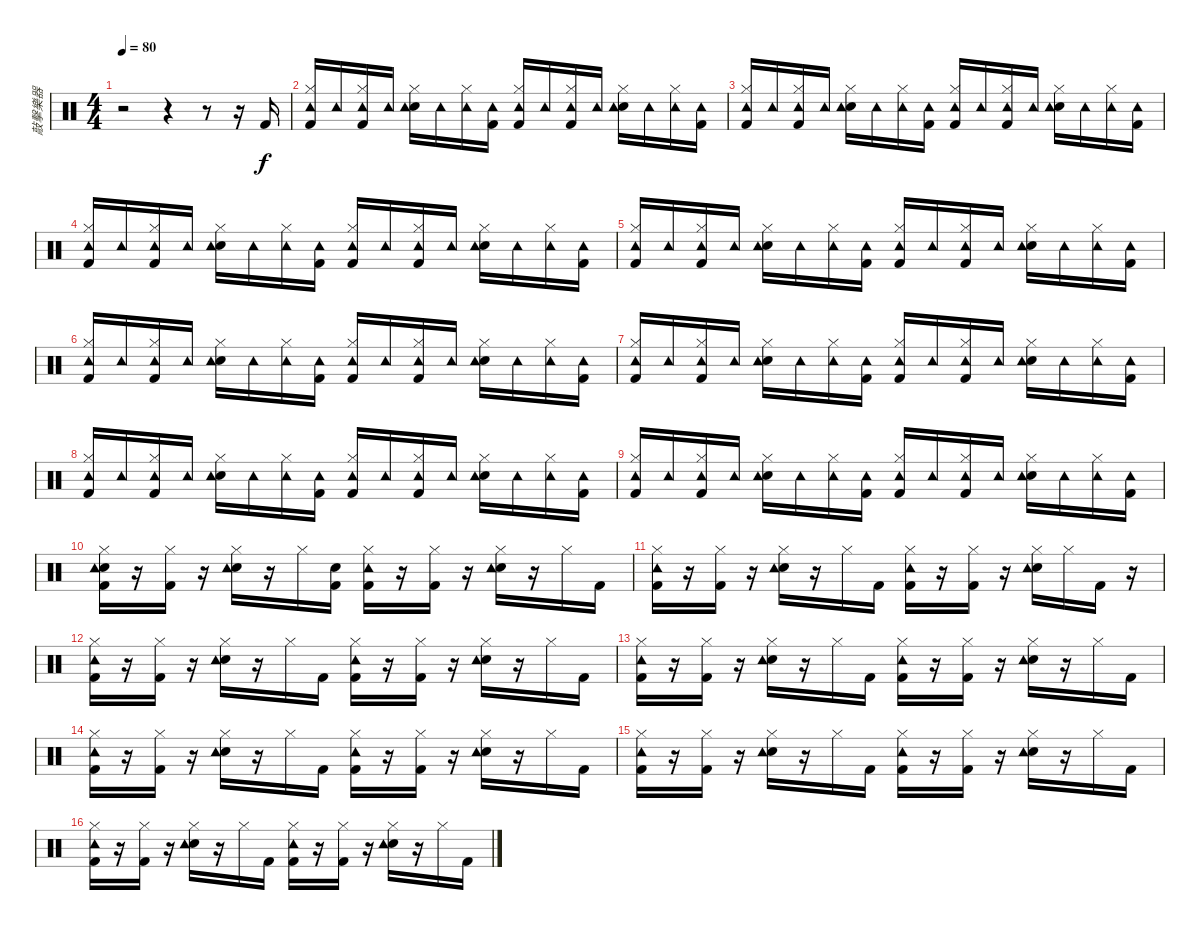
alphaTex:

\track ("敲擊樂器" "敲擊樂器") {instrument percussion}
\staff {score}
\articulation defaults
\ts (4 4)
\tempo 80
\clef neutral
\ks c
r.2{dy f} r.4 r.8 r.16 "Kick (hit) 2".16 |
("Kick (hit) 2" "Hi-Hat (closed)" "Tambourine (hit)").16 "Tambourine (hit)".16 ("Kick (hit) 2" "Hi-Hat (closed)" "Tambourine (hit)").16 "Tambourine (hit)".16 ("Snare (hit) 2" "Hi-Hat (closed)" "Tambourine (hit)").16 "Tambourine (hit)".16 ("Hi-Hat (closed)" "Tambourine (hit)").16 ("Kick (hit) 2" "Tambourine (hit)").16 ("Kick (hit) 2" "Hi-Hat (closed)" "Tambourine (hit)").16 "Tambourine (hit)".16 ("Kick (hit) 2" "Hi-Hat (closed)" "Tambourine (hit)").16 "Tambourine (hit)".16 ("Snare (hit) 2" "Hi-Hat (closed)" "Tambourine (hit)").16 "Tambourine (hit)".16 ("Hi-Hat (closed)" "Tambourine (hit)").16 ("Kick (hit) 2" "Tambourine (hit)").16 |
("Kick (hit) 2" "Hi-Hat (closed)" "Tambourine (hit)").16 "Tambourine (hit)".16 ("Kick (hit) 2" "Hi-Hat (closed)" "Tambourine (hit)").16 "Tambourine (hit)".16 ("Snare (hit) 2" "Hi-Hat (closed)" "Tambourine (hit)").16 "Tambourine (hit)".16 ("Hi-Hat (closed)" "Tambourine (hit)").16 ("Kick (hit) 2" "Tambourine (hit)").16 ("Kick (hit) 2" "Hi-Hat (closed)" "Tambourine (hit)").16 "Tambourine (hit)".16 ("Kick (hit) 2" "Hi-Hat (closed)" "Tambourine (hit)").16 "Tambourine (hit)".16 ("Snare (hit) 2" "Hi-Hat (closed)" "Tambourine (hit)").16 "Tambourine (hit)".16 ("Hi-Hat (closed)" "Tambourine (hit)").16 ("Kick (hit) 2" "Tambourine (hit)").16 |
("Kick (hit) 2" "Hi-Hat (closed)" "Tambourine (hit)").16 "Tambourine (hit)".16 ("Kick (hit) 2" "Hi-Hat (closed)" "Tambourine (hit)").16 "Tambourine (hit)".16 ("Snare (hit) 2" "Hi-Hat (closed)" "Tambourine (hit)").16 "Tambourine (hit)".16 ("Hi-Hat (closed)" "Tambourine (hit)").16 ("Kick (hit) 2" "Tambourine (hit)").16 ("Kick (hit) 2" "Hi-Hat (closed)" "Tambourine (hit)").16 "Tambourine (hit)".16 ("Kick (hit) 2" "Hi-Hat (closed)" "Tambourine (hit)").16 "Tambourine (hit)".16 ("Snare (hit) 2" "Hi-Hat (closed)" "Tambourine (hit)").16 "Tambourine (hit)".16 ("Hi-Hat (closed)" "Tambourine (hit)").16 ("Kick (hit) 2" "Tambourine (hit)").16 |
("Kick (hit) 2" "Hi-Hat (closed)" "Tambourine (hit)").16 "Tambourine (hit)".16 ("Kick (hit) 2" "Hi-Hat (closed)" "Tambourine (hit)").16 "Tambourine (hit)".16 ("Snare (hit) 2" "Hi-Hat (closed)" "Tambourine (hit)").16 "Tambourine (hit)".16 ("Hi-Hat (closed)" "Tambourine (hit)").16 ("Kick (hit) 2" "Tambourine (hit)").16 ("Kick (hit) 2" "Hi-Hat (closed)" "Tambourine (hit)").16 "Tambourine (hit)".16 ("Kick (hit) 2" "Hi-Hat (closed)" "Tambourine (hit)").16 "Tambourine (hit)".16 ("Snare (hit) 2" "Hi-Hat (closed)" "Tambourine (hit)").16 "Tambourine (hit)".16 ("Hi-Hat (closed)" "Tambourine (hit)").16 ("Kick (hit) 2" "Tambourine (hit)").16 |
("Kick (hit) 2" "Hi-Hat (closed)" "Tambourine (hit)").16 "Tambourine (hit)".16 ("Kick (hit) 2" "Hi-Hat (closed)" "Tambourine (hit)").16 "Tambourine (hit)".16 ("Snare (hit) 2" "Hi-Hat (closed)" "Tambourine (hit)").16 "Tambourine (hit)".16 ("Hi-Hat (closed)" "Tambourine (hit)").16 ("Kick (hit) 2" "Tambourine (hit)").16 ("Kick (hit) 2" "Hi-Hat (closed)" "Tambourine (hit)").16 "Tambourine (hit)".16 ("Kick (hit) 2" "Hi-Hat (closed)" "Tambourine (hit)").16 "Tambourine (hit)".16 ("Snare (hit) 2" "Hi-Hat (closed)" "Tambourine (hit)").16 "Tambourine (hit)".16 ("Hi-Hat (closed)" "Tambourine (hit)").16 ("Kick (hit) 2" "Tambourine (hit)").16 |
("Kick (hit) 2" "Hi-Hat (closed)" "Tambourine (hit)").16 "Tambourine (hit)".16 ("Kick (hit) 2" "Hi-Hat (closed)" "Tambourine (hit)").16 "Tambourine (hit)".16 ("Snare (hit) 2" "Hi-Hat (closed)" "Tambourine (hit)").16 "Tambourine (hit)".16 ("Hi-Hat (closed)" "Tambourine (hit)").16 ("Kick (hit) 2" "Tambourine (hit)").16 ("Kick (hit) 2" "Hi-Hat (closed)" "Tambourine (hit)").16 "Tambourine (hit)".16 ("Kick (hit) 2" "Hi-Hat (closed)" "Tambourine (hit)").16 "Tambourine (hit)".16 ("Snare (hit) 2" "Hi-Hat (closed)" "Tambourine (hit)").16 "Tambourine (hit)".16 ("Hi-Hat (closed)" "Tambourine (hit)").16 ("Kick (hit) 2" "Tambourine (hit)").16 |
("Kick (hit) 2" "Hi-Hat (closed)" "Tambourine (hit)").16 "Tambourine (hit)".16 ("Kick (hit) 2" "Hi-Hat (closed)" "Tambourine (hit)").16 "Tambourine (hit)".16 ("Snare (hit) 2" "Hi-Hat (closed)" "Tambourine (hit)").16 "Tambourine (hit)".16 ("Hi-Hat (closed)" "Tambourine (hit)").16 ("Kick (hit) 2" "Tambourine (hit)").16 ("Kick (hit) 2" "Hi-Hat (closed)" "Tambourine (hit)").16 "Tambourine (hit)".16 ("Kick (hit) 2" "Hi-Hat (closed)" "Tambourine (hit)").16 "Tambourine (hit)".16 ("Snare (hit) 2" "Hi-Hat (closed)" "Tambourine (hit)").16 "Tambourine (hit)".16 ("Hi-Hat (closed)" "Tambourine (hit)").16 ("Kick (hit) 2" "Tambourine (hit)").16 |
("Kick (hit) 2" "Hi-Hat (closed)" "Tambourine (hit)").16 "Tambourine (hit)".16 ("Kick (hit) 2" "Hi-Hat (closed)" "Tambourine (hit)").16 "Tambourine (hit)".16 ("Snare (hit) 2" "Hi-Hat (closed)" "Tambourine (hit)").16 "Tambourine (hit)".16 ("Hi-Hat (closed)" "Tambourine (hit)").16 ("Kick (hit) 2" "Tambourine (hit)").16 ("Kick (hit) 2" "Hi-Hat (closed)" "Tambourine (hit)").16 "Tambourine (hit)".16 ("Kick (hit) 2" "Hi-Hat (closed)" "Tambourine (hit)").16 "Tambourine (hit)".16 ("Snare (hit) 2" "Hi-Hat (closed)" "Tambourine (hit)").16 "Tambourine (hit)".16 ("Hi-Hat (closed)" "Tambourine (hit)").16 ("Kick (hit) 2" "Tambourine (hit)").16 |
("Snare (hit)" "Kick (hit) 2" "Hi-Hat (closed)" "Tambourine (hit)").16 r.16 ("Kick (hit) 2" "Hi-Hat (closed)").16 r.16 ("Snare (hit) 2" "Hi-Hat (closed)" "Tambourine (hit)").16 r.16 "Hi-Hat (closed)".16 ("Snare (hit)" "Kick (hit) 2").16 ("Kick (hit) 2" "Hi-Hat (closed)" "Tambourine (hit)").16 r.16 ("Kick (hit) 2" "Hi-Hat (closed)").16 r.16 ("Snare (hit) 2" "Hi-Hat (closed)" "Tambourine (hit)").16 r.16 "Hi-Hat (closed)".16 "Kick (hit) 2".16 |
("Kick (hit) 2" "Hi-Hat (closed)" "Tambourine (hit)").16 r.16 ("Kick (hit) 2" "Hi-Hat (closed)").16 r.16 ("Snare (hit) 2" "Hi-Hat (closed)" "Tambourine (hit)").16 r.16 "Hi-Hat (closed)".16 "Kick (hit) 2".16 ("Kick (hit) 2" "Hi-Hat (closed)" "Tambourine (hit)").16 r.16 ("Kick (hit) 2" "Hi-Hat (closed)").16 r.16 ("Snare (hit) 2" "Hi-Hat (closed)" "Tambourine (hit)").16 "Hi-Hat (closed)".16 "Kick (hit) 2".16 r.16 |
("Kick (hit) 2" "Hi-Hat (closed)" "Tambourine (hit)").16 r.16 ("Kick (hit) 2" "Hi-Hat (closed)").16 r.16 ("Snare (hit) 2" "Hi-Hat (closed)" "Tambourine (hit)").16 r.16 "Hi-Hat (closed)".16 "Kick (hit) 2".16 ("Kick (hit) 2" "Hi-Hat (closed)" "Tambourine (hit)").16 r.16 ("Kick (hit) 2" "Hi-Hat (closed)").16 r.16 ("Snare (hit) 2" "Hi-Hat (closed)" "Tambourine (hit)").16 r.16 "Hi-Hat (closed)".16 "Kick (hit) 2".16 |
("Kick (hit) 2" "Hi-Hat (closed)" "Tambourine (hit)").16 r.16 ("Kick (hit) 2" "Hi-Hat (closed)").16 r.16 ("Snare (hit) 2" "Hi-Hat (closed)" "Tambourine (hit)").16 r.16 "Hi-Hat (closed)".16 "Kick (hit) 2".16 ("Kick (hit) 2" "Hi-Hat (closed)" "Tambourine (hit)").16 r.16 ("Kick (hit) 2" "Hi-Hat (closed)").16 r.16 ("Snare (hit) 2" "Hi-Hat (closed)" "Tambourine (hit)").16 r.16 "Hi-Hat (closed)".16 "Kick (hit) 2".16 |
("Kick (hit) 2" "Hi-Hat (closed)" "Tambourine (hit)").16 r.16 ("Kick (hit) 2" "Hi-Hat (closed)").16 r.16 ("Snare (hit) 2" "Hi-Hat (closed)" "Tambourine (hit)").16 r.16 "Hi-Hat (closed)".16 "Kick (hit) 2".16 ("Kick (hit) 2" "Hi-Hat (closed)" "Tambourine (hit)").16 r.16 ("Kick (hit) 2" "Hi-Hat (closed)").16 r.16 ("Snare (hit) 2" "Hi-Hat (closed)" "Tambourine (hit)").16 r.16 "Hi-Hat (closed)".16 "Kick (hit) 2".16 |
("Kick (hit) 2" "Hi-Hat (closed)" "Tambourine (hit)").16 r.16 ("Kick (hit) 2" "Hi-Hat (closed)").16 r.16 ("Snare (hit) 2" "Hi-Hat (closed)" "Tambourine (hit)").16 r.16 "Hi-Hat (closed)".16 "Kick (hit) 2".16 ("Kick (hit) 2" "Hi-Hat (closed)" "Tambourine (hit)").16 r.16 ("Kick (hit) 2" "Hi-Hat (closed)").16 r.16 ("Snare (hit) 2" "Hi-Hat (closed)" "Tambourine (hit)").16 r.16 "Hi-Hat (closed)".16 "Kick (hit) 2".16 |
("Kick (hit) 2" "Hi-Hat (closed)" "Tambourine (hit)").16 r.16 ("Kick (hit) 2" "Hi-Hat (closed)").16 r.16 ("Snare (hit) 2" "Hi-Hat (closed)" "Tambourine (hit)").16 r.16 "Hi-Hat (closed)".16 "Kick (hit) 2".16 ("Kick (hit) 2" "Hi-Hat (closed)" "Tambourine (hit)").16 r.16 ("Kick (hit) 2" "Hi-Hat (closed)").16 r.16 ("Snare (hit) 2" "Hi-Hat (closed)" "Tambourine (hit)").16 r.16 "Hi-Hat (closed)".16 "Kick (hit) 2".16
